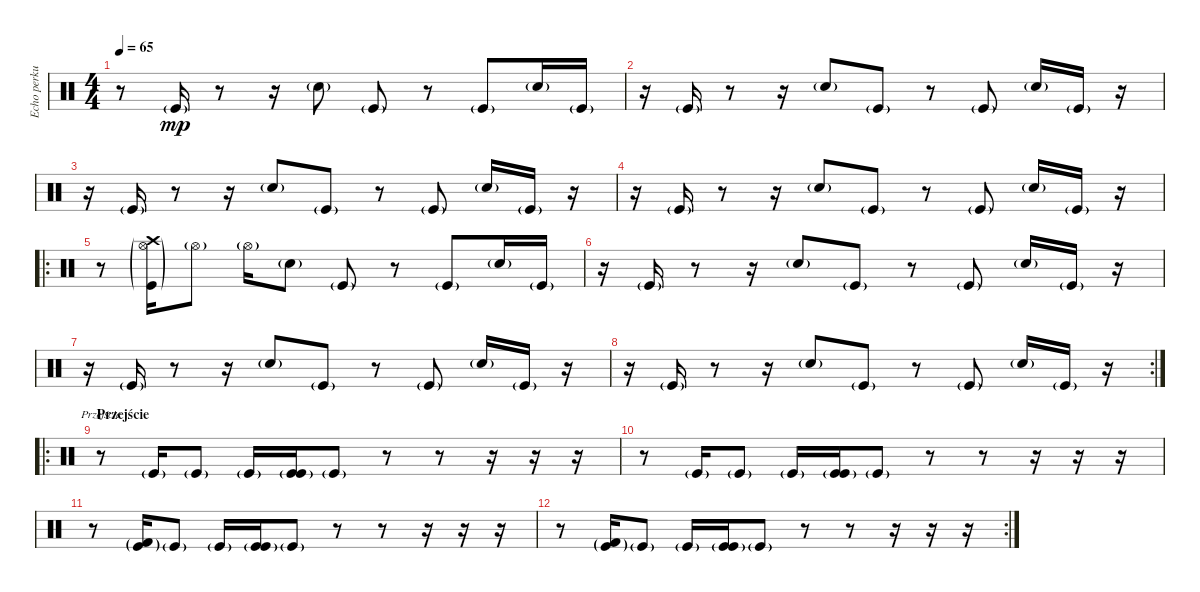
\track ("Echo perkusji 2" "Echo perku") {instrument percussion}
\staff {score}
\articulation defaults
\chord ("Przejście")
\ts (4 4)
\tempo 65
\clef neutral
\ks c
r.8{dy mp} "Kick (hit)"{g}.16 r.8 r.16 "Snare (hit) 2"{g}.8 "Kick (hit)"{g}.8 r.8 "Kick (hit)"{g}.8 "Snare (hit) 2"{g}.16 "Kick (hit)"{g}.16 |
r.16 "Kick (hit)"{g}.16 r.8 r.16 "Snare (hit) 2"{g}.8 "Kick (hit)"{g}.8 r.8 "Kick (hit)"{g}.8 "Snare (hit) 2"{g}.16 "Kick (hit)"{g}.16 r.16 |
r.16 "Kick (hit)"{g}.16 r.8 r.16 "Snare (hit) 2"{g}.8 "Kick (hit)"{g}.8 r.8 "Kick (hit)"{g}.8 "Snare (hit) 2"{g}.16 "Kick (hit)"{g}.16 r.16 |
r.16 "Kick (hit)"{g}.16 r.8 r.16 "Snare (hit) 2"{g}.8 "Kick (hit)"{g}.8 r.8 "Kick (hit)"{g}.8 "Snare (hit) 2"{g}.16 "Kick (hit)"{g}.16 r.16 |
\ro
r.8 ("Kick (hit)"{g} "Hi-Hat (open)"{g} "Crash high (hit)"{g}).16 "Hi-Hat (open)"{g}.8 "Hi-Hat (open)"{g}.16 "Snare (hit) 2"{g}.8 "Kick (hit)"{g}.8 r.8 "Kick (hit)"{g}.8 "Snare (hit) 2"{g}.16 "Kick (hit)"{g}.16 |
r.16 "Kick (hit)"{g}.16 r.8 r.16 "Snare (hit) 2"{g}.8 "Kick (hit)"{g}.8 r.8 "Kick (hit)"{g}.8 "Snare (hit) 2"{g}.16 "Kick (hit)"{g}.16 r.16 |
r.16 "Kick (hit)"{g}.16 r.8 r.16 "Snare (hit) 2"{g}.8 "Kick (hit)"{g}.8 r.8 "Kick (hit)"{g}.8 "Snare (hit) 2"{g}.16 "Kick (hit)"{g}.16 r.16 |
\rc 2
r.16 "Kick (hit)"{g}.16 r.8 r.16 "Snare (hit) 2"{g}.8 "Kick (hit)"{g}.8 r.8 "Kick (hit)"{g}.8 "Snare (hit) 2"{g}.16 "Kick (hit)"{g}.16 r.16 |
\ro
\section ("" "Przejście")
r.8{ch "Przejście"} "Kick (hit)"{g}.16 "Kick (hit)"{g}.8 "Kick (hit)"{g}.16 ("Kick (hit)"{g} "Kick (hit)").16{volume 11} "Kick (hit)"{g}.8{volume 9} r.8{volume 13} r.8 r.16 r.16 r.16 |
r.8 "Kick (hit)"{g}.16 "Kick (hit)"{g}.8 "Kick (hit)"{g}.16 ("Kick (hit)"{g} "Kick (hit)").16{volume 11} "Kick (hit)"{g}.8{volume 9} r.8{volume 13} r.8 r.16 r.16 r.16 |
r.8 ("Kick (hit)"{g} "Kick (hit) 2"{g}).16 "Kick (hit)"{g}.8 "Kick (hit)"{g}.16 ("Kick (hit)"{g} "Kick (hit)").16{volume 11} "Kick (hit)"{g}.8{volume 10} r.8{volume 13} r.8 r.16 r.16 r.16 |
\rc 2
r.8 ("Kick (hit)"{g} "Kick (hit) 2"{g}).16 "Kick (hit)"{g}.8 "Kick (hit)"{g}.16 ("Kick (hit)"{g} "Kick (hit)").16{volume 11} "Kick (hit)"{g}.8{volume 10} r.8{volume 13} r.8 r.16 r.16 r.16
